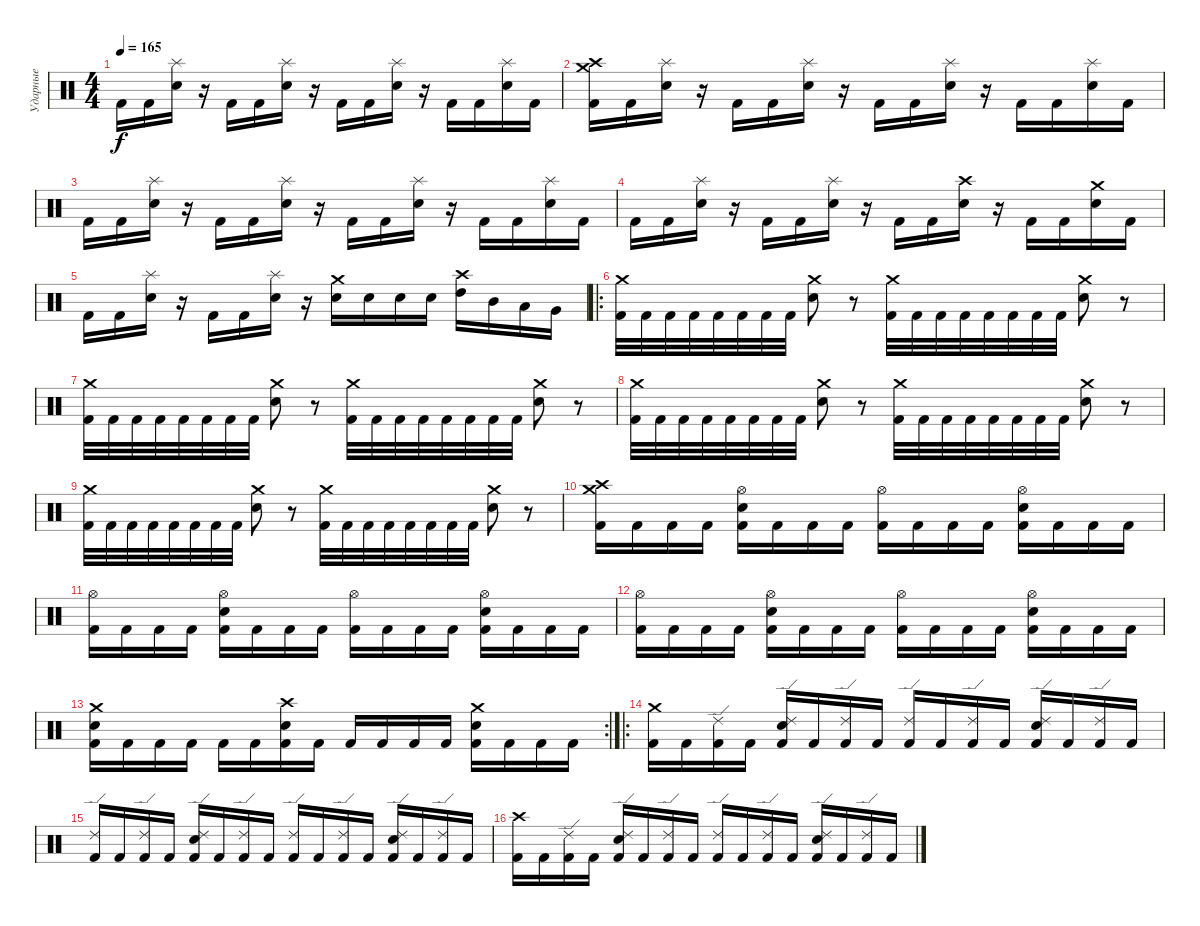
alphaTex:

\track ("Ударные" "Ударные") {instrument percussion}
\staff {score}
\articulation defaults
\ts (4 4)
\tempo 165
\clef neutral
\ks c "Kick (hit) 2".16{dy f} "Kick (hit) 2".16
("Splash (hit)" "Electric Snare (hit)").16 r.16 "Kick (hit) 2".16 "Kick (hit) 2".16 ("Splash (hit)" "Electric Snare (hit)").16 r.16 "Kick (hit) 2".16 "Kick (hit) 2".16 ("Splash (hit)" "Electric Snare (hit)").16 r.16 "Kick (hit) 2".16 "Kick (hit) 2".16 ("Splash (hit)" "Electric Snare (hit)").16 "Kick (hit) 2".16 |
("Crash medium (hit)" "Crash high (hit)" "Kick (hit) 2").16 "Kick (hit) 2".16 ("Splash (hit)" "Electric Snare (hit)").16 r.16 "Kick (hit) 2".16 "Kick (hit) 2".16 ("Splash (hit)" "Electric Snare (hit)").16 r.16 "Kick (hit) 2".16 "Kick (hit) 2".16 ("Splash (hit)" "Electric Snare (hit)").16 r.16 "Kick (hit) 2".16 "Kick (hit) 2".16 ("Splash (hit)" "Electric Snare (hit)").16 "Kick (hit) 2".16 |
"Kick (hit) 2".16 "Kick (hit) 2".16 ("Splash (hit)" "Electric Snare (hit)").16 r.16 "Kick (hit) 2".16 "Kick (hit) 2".16 ("Splash (hit)" "Electric Snare (hit)").16 r.16 "Kick (hit) 2".16 "Kick (hit) 2".16 ("Splash (hit)" "Electric Snare (hit)").16 r.16 "Kick (hit) 2".16 "Kick (hit) 2".16 ("Splash (hit)" "Electric Snare (hit)").16 "Kick (hit) 2".16 |
"Kick (hit) 2".16 "Kick (hit) 2".16 ("Splash (hit)" "Electric Snare (hit)").16 r.16 "Kick (hit) 2".16 "Kick (hit) 2".16 ("Splash (hit)" "Electric Snare (hit)").16 r.16 "Kick (hit) 2".16 "Kick (hit) 2".16 ("Crash high (hit)" "Electric Snare (hit)").16 r.16 "Kick (hit) 2".16 "Kick (hit) 2".16 ("Crash medium (hit)" "Electric Snare (hit)").16 "Kick (hit) 2".16 |
"Kick (hit) 2".16 "Kick (hit) 2".16 ("Splash (hit)" "Electric Snare (hit)").16 r.16 "Kick (hit) 2".16 "Kick (hit) 2".16 ("Splash (hit)" "Electric Snare (hit)").16 r.16 ("Crash medium (hit)" "Electric Snare (hit)").16 "Electric Snare (hit)".16 "Electric Snare (hit)".16 "Electric Snare (hit)".16 ("Crash high (hit)" "High Tom (hit)").16 "Mid Tom (hit)".16 "Low Tom (hit)".16 "Very Low Tom (hit)".16 |
\ro
("Crash medium (hit)" "Kick (hit) 2").32 "Kick (hit) 2".32 "Kick (hit) 2".32 "Kick (hit) 2".32 "Kick (hit) 2".32 "Kick (hit) 2".32 "Kick (hit) 2".32 "Kick (hit) 2".32 ("Crash medium (hit)" "Electric Snare (hit)").8 r.8 ("Crash medium (hit)" "Kick (hit) 2").32 "Kick (hit) 2".32 "Kick (hit) 2".32 "Kick (hit) 2".32 "Kick (hit) 2".32 "Kick (hit) 2".32 "Kick (hit) 2".32 "Kick (hit) 2".32 ("Crash medium (hit)" "Electric Snare (hit)").8 r.8 |
("Crash medium (hit)" "Kick (hit) 2").32 "Kick (hit) 2".32 "Kick (hit) 2".32 "Kick (hit) 2".32 "Kick (hit) 2".32 "Kick (hit) 2".32 "Kick (hit) 2".32 "Kick (hit) 2".32 ("Crash medium (hit)" "Electric Snare (hit)").8 r.8 ("Crash medium (hit)" "Kick (hit) 2").32 "Kick (hit) 2".32 "Kick (hit) 2".32 "Kick (hit) 2".32 "Kick (hit) 2".32 "Kick (hit) 2".32 "Kick (hit) 2".32 "Kick (hit) 2".32 ("Crash medium (hit)" "Electric Snare (hit)").8 r.8 |
("Crash medium (hit)" "Kick (hit) 2").32 "Kick (hit) 2".32 "Kick (hit) 2".32 "Kick (hit) 2".32 "Kick (hit) 2".32 "Kick (hit) 2".32 "Kick (hit) 2".32 "Kick (hit) 2".32 ("Crash medium (hit)" "Electric Snare (hit)").8 r.8 ("Crash medium (hit)" "Kick (hit) 2").32 "Kick (hit) 2".32 "Kick (hit) 2".32 "Kick (hit) 2".32 "Kick (hit) 2".32 "Kick (hit) 2".32 "Kick (hit) 2".32 "Kick (hit) 2".32 ("Crash medium (hit)" "Electric Snare (hit)").8 r.8 |
("Crash medium (hit)" "Kick (hit) 2").32 "Kick (hit) 2".32 "Kick (hit) 2".32 "Kick (hit) 2".32 "Kick (hit) 2".32 "Kick (hit) 2".32 "Kick (hit) 2".32 "Kick (hit) 2".32 ("Crash medium (hit)" "Electric Snare (hit)").8 r.8 ("Crash medium (hit)" "Kick (hit) 2").32 "Kick (hit) 2".32 "Kick (hit) 2".32 "Kick (hit) 2".32 "Kick (hit) 2".32 "Kick (hit) 2".32 "Kick (hit) 2".32 "Kick (hit) 2".32 ("Crash medium (hit)" "Electric Snare (hit)").8 r.8 |
("Crash medium (hit)" "Crash high (hit)" "Kick (hit) 2").16 "Kick (hit) 2".16 "Kick (hit) 2".16 "Kick (hit) 2".16 ("Hi-Hat (open)" "Electric Snare (hit)" "Kick (hit) 2").16 "Kick (hit) 2".16 "Kick (hit) 2".16 "Kick (hit) 2".16 ("Hi-Hat (open)" "Kick (hit) 2").16 "Kick (hit) 2".16 "Kick (hit) 2".16 "Kick (hit) 2".16 ("Hi-Hat (open)" "Electric Snare (hit)" "Kick (hit) 2").16 "Kick (hit) 2".16 "Kick (hit) 2".16 "Kick (hit) 2".16 |
("Hi-Hat (open)" "Kick (hit) 2").16 "Kick (hit) 2".16 "Kick (hit) 2".16 "Kick (hit) 2".16 ("Hi-Hat (open)" "Electric Snare (hit)" "Kick (hit) 2").16 "Kick (hit) 2".16 "Kick (hit) 2".16 "Kick (hit) 2".16 ("Hi-Hat (open)" "Kick (hit) 2").16 "Kick (hit) 2".16 "Kick (hit) 2".16 "Kick (hit) 2".16 ("Hi-Hat (open)" "Electric Snare (hit)" "Kick (hit) 2").16 "Kick (hit) 2".16 "Kick (hit) 2".16 "Kick (hit) 2".16 |
("Hi-Hat (open)" "Kick (hit) 2").16 "Kick (hit) 2".16 "Kick (hit) 2".16 "Kick (hit) 2".16 ("Hi-Hat (open)" "Electric Snare (hit)" "Kick (hit) 2").16 "Kick (hit) 2".16 "Kick (hit) 2".16 "Kick (hit) 2".16 ("Hi-Hat (open)" "Kick (hit) 2").16 "Kick (hit) 2".16 "Kick (hit) 2".16 "Kick (hit) 2".16 ("Hi-Hat (open)" "Electric Snare (hit)" "Kick (hit) 2").16 "Kick (hit) 2".16 "Kick (hit) 2".16 "Kick (hit) 2".16 |
\rc 2
("Crash medium (hit)" "Electric Snare (hit)" "Kick (hit) 2").16 "Kick (hit) 2".16 "Kick (hit) 2".16 "Kick (hit) 2".16 "Kick (hit) 2".16 "Kick (hit) 2".16 ("Crash high (hit)" "Electric Snare (hit)" "Kick (hit) 2").16 "Kick (hit) 2".16 "Kick (hit) 2".16 "Kick (hit) 2".16 "Kick (hit) 2".16 "Kick (hit) 2".16 ("Crash medium (hit)" "Electric Snare (hit)" "Kick (hit) 2").16 "Kick (hit) 2".16 "Kick (hit) 2".16 "Kick (hit) 2".16 |
\ro
("Crash medium (hit)" "Kick (hit) 2").16 "Kick (hit) 2".16 ("Ride (edge) 2" "Kick (hit) 2").16 "Kick (hit) 2".16 ("Ride (edge) 2" "Electric Snare (hit)" "Kick (hit) 2").16 "Kick (hit) 2".16 ("Ride (edge) 2" "Kick (hit) 2").16 "Kick (hit) 2".16 ("Ride (edge) 2" "Kick (hit) 2").16 "Kick (hit) 2".16 ("Ride (edge) 2" "Kick (hit) 2").16 "Kick (hit) 2".16 ("Ride (edge) 2" "Electric Snare (hit)" "Kick (hit) 2").16 "Kick (hit) 2".16 ("Ride (edge) 2" "Kick (hit) 2").16 "Kick (hit) 2".16 |
("Ride (edge) 2" "Kick (hit) 2").16 "Kick (hit) 2".16 ("Ride (edge) 2" "Kick (hit) 2").16 "Kick (hit) 2".16 ("Ride (edge) 2" "Electric Snare (hit)" "Kick (hit) 2").16 "Kick (hit) 2".16 ("Ride (edge) 2" "Kick (hit) 2").16 "Kick (hit) 2".16 ("Ride (edge) 2" "Kick (hit) 2").16 "Kick (hit) 2".16 ("Ride (edge) 2" "Kick (hit) 2").16 "Kick (hit) 2".16 ("Ride (edge) 2" "Electric Snare (hit)" "Kick (hit) 2").16 "Kick (hit) 2".16 ("Ride (edge) 2" "Kick (hit) 2").16 "Kick (hit) 2".16 |
("Crash high (hit)" "Kick (hit) 2").16 "Kick (hit) 2".16 ("Ride (edge) 2" "Kick (hit) 2").16 "Kick (hit) 2".16 ("Ride (edge) 2" "Electric Snare (hit)" "Kick (hit) 2").16 "Kick (hit) 2".16 ("Ride (edge) 2" "Kick (hit) 2").16 "Kick (hit) 2".16 ("Ride (edge) 2" "Kick (hit) 2").16 "Kick (hit) 2".16 ("Ride (edge) 2" "Kick (hit) 2").16 "Kick (hit) 2".16 ("Ride (edge) 2" "Electric Snare (hit)" "Kick (hit) 2").16 "Kick (hit) 2".16 ("Ride (edge) 2" "Kick (hit) 2").16 "Kick (hit) 2".16
